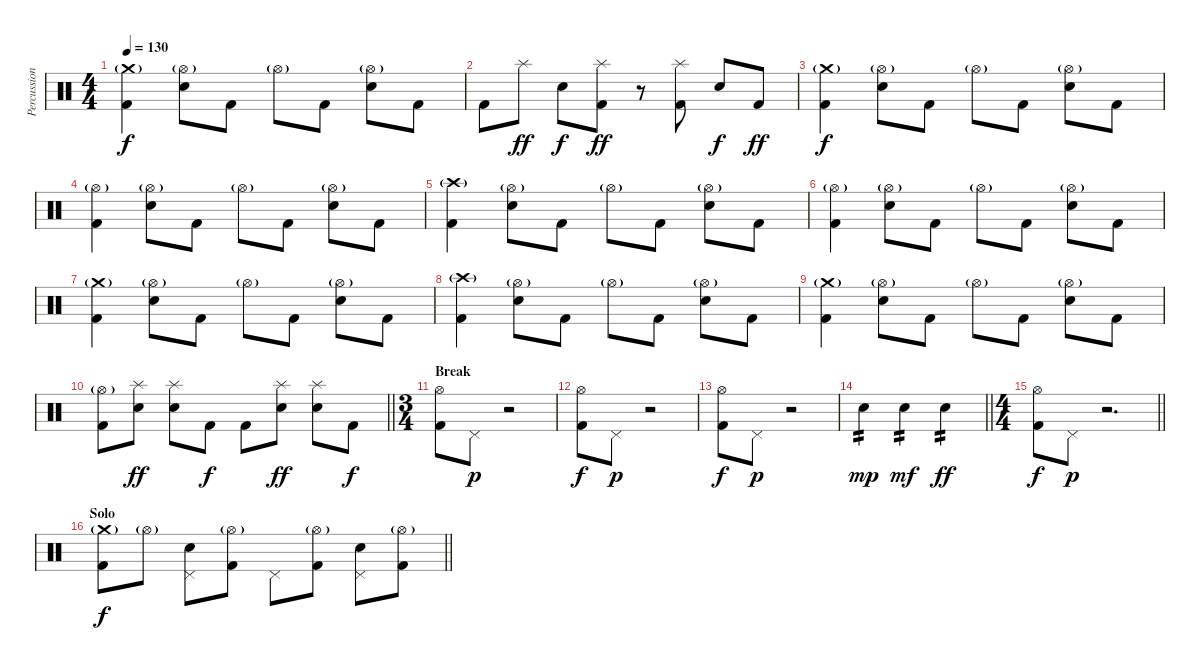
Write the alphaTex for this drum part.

\track ("Percussion" "Percussion") {instrument percussion}
\staff {score}
\articulation defaults
\ts (4 4)
\tempo 130
\clef neutral
\ks c
("Crash medium (hit)"{g} "Kick (hit) 2").4{dy f} ("Hi-Hat (open)"{g} "Electric Snare (hit)").8 "Kick (hit) 2".8 "Hi-Hat (open)"{g}.8 "Kick (hit) 2".8 ("Hi-Hat (open)"{g} "Electric Snare (hit)").8 "Kick (hit) 2".8 |
"Kick (hit) 2".8 "Splash (hit)".8{dy ff} "Electric Snare (hit)".8{dy f} ("Splash (hit)" "Kick (hit) 2").8{dy ff} r.8 ("Splash (hit)" "Kick (hit) 2").8 "Electric Snare (hit)".8{dy f} "Kick (hit) 2".8{dy ff} |
("Crash medium (hit)"{g} "Kick (hit) 2").4{dy f} ("Hi-Hat (open)"{g} "Electric Snare (hit)").8 "Kick (hit) 2".8 "Hi-Hat (open)"{g}.8 "Kick (hit) 2".8 ("Hi-Hat (open)"{g} "Electric Snare (hit)").8 "Kick (hit) 2".8 |
("Hi-Hat (open)"{g} "Kick (hit) 2").4 ("Hi-Hat (open)"{g} "Electric Snare (hit)").8 "Kick (hit) 2".8 "Hi-Hat (open)"{g}.8 "Kick (hit) 2".8 ("Hi-Hat (open)"{g} "Electric Snare (hit)").8 "Kick (hit) 2".8 |
("Crash high (hit)"{g} "Kick (hit) 2").4 ("Hi-Hat (open)"{g} "Electric Snare (hit)").8 "Kick (hit) 2".8 "Hi-Hat (open)"{g}.8 "Kick (hit) 2".8 ("Hi-Hat (open)"{g} "Electric Snare (hit)").8 "Kick (hit) 2".8 |
("Hi-Hat (open)"{g} "Kick (hit) 2").4 ("Hi-Hat (open)"{g} "Electric Snare (hit)").8 "Kick (hit) 2".8 "Hi-Hat (open)"{g}.8 "Kick (hit) 2".8 ("Hi-Hat (open)"{g} "Electric Snare (hit)").8 "Kick (hit) 2".8 |
("Crash medium (hit)"{g} "Kick (hit) 2").4 ("Hi-Hat (open)"{g} "Electric Snare (hit)").8 "Kick (hit) 2".8 "Hi-Hat (open)"{g}.8 "Kick (hit) 2".8 ("Hi-Hat (open)"{g} "Electric Snare (hit)").8 "Kick (hit) 2".8 |
("Crash high (hit)"{g} "Kick (hit) 2").4 ("Hi-Hat (open)"{g} "Electric Snare (hit)").8 "Kick (hit) 2".8 "Hi-Hat (open)"{g}.8 "Kick (hit) 2".8 ("Hi-Hat (open)"{g} "Electric Snare (hit)").8 "Kick (hit) 2".8 |
("Crash medium (hit)"{g} "Kick (hit) 2").4 ("Hi-Hat (open)"{g} "Electric Snare (hit)").8 "Kick (hit) 2".8 "Hi-Hat (open)"{g}.8 "Kick (hit) 2".8 ("Hi-Hat (open)"{g} "Electric Snare (hit)").8 "Kick (hit) 2".8 |
\barLineRight lightlight
("Hi-Hat (open)"{g} "Kick (hit) 2").8 ("Splash (hit)" "Electric Snare (hit)").8{dy ff} ("Splash (hit)" "Electric Snare (hit)").8 "Kick (hit) 2".8{dy f} "Kick (hit) 2".8 ("Splash (hit)" "Electric Snare (hit)").8{dy ff} ("Splash (hit)" "Electric Snare (hit)").8 "Kick (hit) 2".8{dy f} |
\ts (3 4)
\section ("" "Break ")
("Hi-Hat (open)" "Kick (hit) 2").8 "Pedal Hi-Hat (hit)".8{dy p} r.2 |
("Hi-Hat (open)" "Kick (hit) 2").8{dy f} "Pedal Hi-Hat (hit)".8{dy p} r.2 |
("Hi-Hat (open)" "Kick (hit) 2").8{dy f} "Pedal Hi-Hat (hit)".8{dy p} r.2 |
\barLineRight lightlight "Electric Snare (hit)".4{tp 2 dy mp} "Electric Snare (hit)".4{tp 2 dy mf} "Electric Snare (hit)".4{tp 2 dy ff}
|
\ts (4 4)
\section ("" "")
\barLineRight lightlight
("Hi-Hat (open)" "Kick (hit) 2").8{dy f} "Pedal Hi-Hat (hit)".8{dy p} r.2{d} |
\section ("" "Solo")
\barLineRight lightlight
("Crash medium (hit)"{g} "Kick (hit) 2").8{dy f} "Hi-Hat (open)"{g}.8 ("Electric Snare (hit)" "Pedal Hi-Hat (hit)").8 ("Hi-Hat (open)"{g} "Kick (hit) 2").8 "Pedal Hi-Hat (hit)".8 ("Hi-Hat (open)"{g} "Kick (hit) 2").8 ("Electric Snare (hit)" "Pedal Hi-Hat (hit)").8 ("Hi-Hat (open)"{g} "Kick (hit) 2").8
